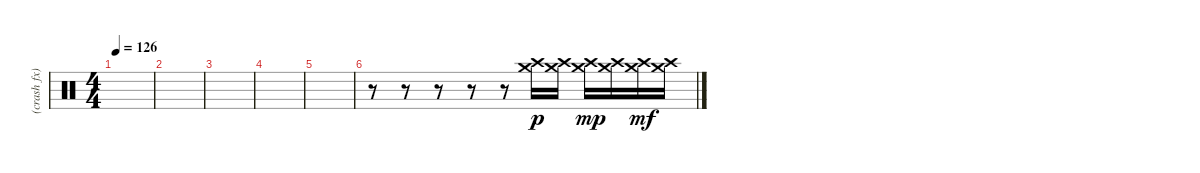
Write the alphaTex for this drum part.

\track ("(crash fx)" "(crash fx)") {instrument percussion}
\staff {score}
\articulation defaults
\ts (4 4)
\tempo 126
\clef neutral
\ks c
|
|
|
|
|
r.8 r.8 r.8 r.8 r.8 ("Crash medium (hit)" "Crash high (hit)").16{dy p} ("Crash medium (hit)" "Crash high (hit)").16 ("Crash medium (hit)" "Crash high (hit)").16{dy mp} ("Crash medium (hit)" "Crash high (hit)").16 ("Crash medium (hit)" "Crash high (hit)").16{dy mf} ("Crash medium (hit)" "Crash high (hit)").16
